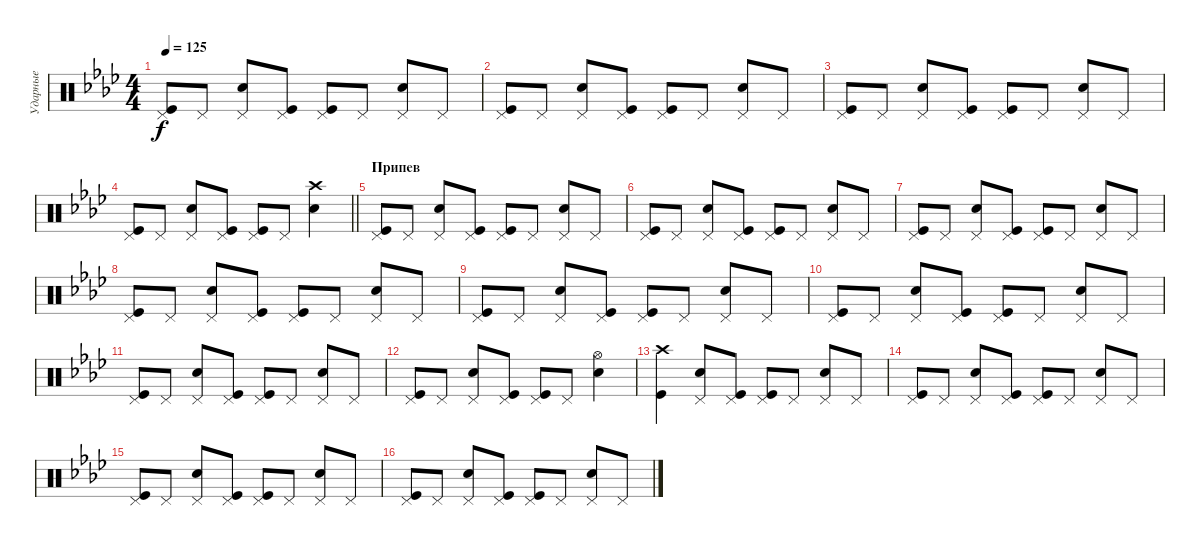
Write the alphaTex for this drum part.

\track ("Ударные" "Ударные") {solo instrument percussion}
\staff {score}
\articulation defaults
\ts (4 4)
\tempo 125
\clef neutral
\ks fminor
("Pedal Hi-Hat (hit)" "Kick (hit)").8{dy f} "Pedal Hi-Hat (hit)".8 ("Pedal Hi-Hat (hit)" "Electric Snare (hit)").8 ("Pedal Hi-Hat (hit)" "Kick (hit)").8 ("Pedal Hi-Hat (hit)" "Kick (hit)").8 "Pedal Hi-Hat (hit)".8 ("Pedal Hi-Hat (hit)" "Electric Snare (hit)").8 "Pedal Hi-Hat (hit)".8 |
("Pedal Hi-Hat (hit)" "Kick (hit)").8 "Pedal Hi-Hat (hit)".8 ("Pedal Hi-Hat (hit)" "Electric Snare (hit)").8 ("Pedal Hi-Hat (hit)" "Kick (hit)").8 ("Pedal Hi-Hat (hit)" "Kick (hit)").8 "Pedal Hi-Hat (hit)".8 ("Pedal Hi-Hat (hit)" "Electric Snare (hit)").8 "Pedal Hi-Hat (hit)".8 |
("Pedal Hi-Hat (hit)" "Kick (hit)").8 "Pedal Hi-Hat (hit)".8 ("Pedal Hi-Hat (hit)" "Electric Snare (hit)").8 ("Pedal Hi-Hat (hit)" "Kick (hit)").8 ("Pedal Hi-Hat (hit)" "Kick (hit)").8 "Pedal Hi-Hat (hit)".8 ("Pedal Hi-Hat (hit)" "Electric Snare (hit)").8 "Pedal Hi-Hat (hit)".8 |
\barLineRight lightlight
("Pedal Hi-Hat (hit)" "Kick (hit)").8 "Pedal Hi-Hat (hit)".8 ("Pedal Hi-Hat (hit)" "Electric Snare (hit)").8 ("Pedal Hi-Hat (hit)" "Kick (hit)").8 ("Pedal Hi-Hat (hit)" "Kick (hit)").8 "Pedal Hi-Hat (hit)".8 ("Crash high (hit)" "Electric Snare (hit)").4 |
\section ("" "Припев")
("Pedal Hi-Hat (hit)" "Kick (hit)").8 "Pedal Hi-Hat (hit)".8 ("Pedal Hi-Hat (hit)" "Electric Snare (hit)").8 ("Pedal Hi-Hat (hit)" "Kick (hit)").8 ("Pedal Hi-Hat (hit)" "Kick (hit)").8 "Pedal Hi-Hat (hit)".8 ("Pedal Hi-Hat (hit)" "Electric Snare (hit)").8 "Pedal Hi-Hat (hit)".8 |
("Pedal Hi-Hat (hit)" "Kick (hit)").8 "Pedal Hi-Hat (hit)".8 ("Pedal Hi-Hat (hit)" "Electric Snare (hit)").8 ("Pedal Hi-Hat (hit)" "Kick (hit)").8 ("Pedal Hi-Hat (hit)" "Kick (hit)").8 "Pedal Hi-Hat (hit)".8 ("Pedal Hi-Hat (hit)" "Electric Snare (hit)").8 "Pedal Hi-Hat (hit)".8 |
("Pedal Hi-Hat (hit)" "Kick (hit)").8 "Pedal Hi-Hat (hit)".8 ("Pedal Hi-Hat (hit)" "Electric Snare (hit)").8 ("Pedal Hi-Hat (hit)" "Kick (hit)").8 ("Pedal Hi-Hat (hit)" "Kick (hit)").8 "Pedal Hi-Hat (hit)".8 ("Pedal Hi-Hat (hit)" "Electric Snare (hit)").8 "Pedal Hi-Hat (hit)".8 |
("Pedal Hi-Hat (hit)" "Kick (hit)").8 "Pedal Hi-Hat (hit)".8 ("Pedal Hi-Hat (hit)" "Electric Snare (hit)").8 ("Pedal Hi-Hat (hit)" "Kick (hit)").8 ("Pedal Hi-Hat (hit)" "Kick (hit)").8 "Pedal Hi-Hat (hit)".8 ("Pedal Hi-Hat (hit)" "Electric Snare (hit)").8 "Pedal Hi-Hat (hit)".8 |
("Pedal Hi-Hat (hit)" "Kick (hit)").8 "Pedal Hi-Hat (hit)".8 ("Pedal Hi-Hat (hit)" "Electric Snare (hit)").8 ("Pedal Hi-Hat (hit)" "Kick (hit)").8 ("Pedal Hi-Hat (hit)" "Kick (hit)").8 "Pedal Hi-Hat (hit)".8 ("Pedal Hi-Hat (hit)" "Electric Snare (hit)").8 "Pedal Hi-Hat (hit)".8 |
("Pedal Hi-Hat (hit)" "Kick (hit)").8 "Pedal Hi-Hat (hit)".8 ("Pedal Hi-Hat (hit)" "Electric Snare (hit)").8 ("Pedal Hi-Hat (hit)" "Kick (hit)").8 ("Pedal Hi-Hat (hit)" "Kick (hit)").8 "Pedal Hi-Hat (hit)".8 ("Pedal Hi-Hat (hit)" "Electric Snare (hit)").8 "Pedal Hi-Hat (hit)".8 |
("Pedal Hi-Hat (hit)" "Kick (hit)").8 "Pedal Hi-Hat (hit)".8 ("Pedal Hi-Hat (hit)" "Electric Snare (hit)").8 ("Pedal Hi-Hat (hit)" "Kick (hit)").8 ("Pedal Hi-Hat (hit)" "Kick (hit)").8 "Pedal Hi-Hat (hit)".8 ("Pedal Hi-Hat (hit)" "Electric Snare (hit)").8 "Pedal Hi-Hat (hit)".8 |
("Pedal Hi-Hat (hit)" "Kick (hit)").8 "Pedal Hi-Hat (hit)".8 ("Pedal Hi-Hat (hit)" "Electric Snare (hit)").8 ("Pedal Hi-Hat (hit)" "Kick (hit)").8 ("Pedal Hi-Hat (hit)" "Kick (hit)").8 "Pedal Hi-Hat (hit)".8 ("Hi-Hat (open)" "Electric Snare (hit)").4 |
("Crash high (hit)" "Kick (hit)").4 ("Pedal Hi-Hat (hit)" "Electric Snare (hit)").8 ("Pedal Hi-Hat (hit)" "Kick (hit)").8 ("Pedal Hi-Hat (hit)" "Kick (hit)").8 "Pedal Hi-Hat (hit)".8 ("Pedal Hi-Hat (hit)" "Electric Snare (hit)").8 "Pedal Hi-Hat (hit)".8 |
("Pedal Hi-Hat (hit)" "Kick (hit)").8 "Pedal Hi-Hat (hit)".8 ("Pedal Hi-Hat (hit)" "Electric Snare (hit)").8 ("Pedal Hi-Hat (hit)" "Kick (hit)").8 ("Pedal Hi-Hat (hit)" "Kick (hit)").8 "Pedal Hi-Hat (hit)".8 ("Pedal Hi-Hat (hit)" "Electric Snare (hit)").8 "Pedal Hi-Hat (hit)".8 |
("Pedal Hi-Hat (hit)" "Kick (hit)").8 "Pedal Hi-Hat (hit)".8 ("Pedal Hi-Hat (hit)" "Electric Snare (hit)").8 ("Pedal Hi-Hat (hit)" "Kick (hit)").8 ("Pedal Hi-Hat (hit)" "Kick (hit)").8 "Pedal Hi-Hat (hit)".8 ("Pedal Hi-Hat (hit)" "Electric Snare (hit)").8 "Pedal Hi-Hat (hit)".8 |
("Pedal Hi-Hat (hit)" "Kick (hit)").8 "Pedal Hi-Hat (hit)".8 ("Pedal Hi-Hat (hit)" "Electric Snare (hit)").8 ("Pedal Hi-Hat (hit)" "Kick (hit)").8 ("Pedal Hi-Hat (hit)" "Kick (hit)").8 "Pedal Hi-Hat (hit)".8 ("Pedal Hi-Hat (hit)" "Electric Snare (hit)").8 "Pedal Hi-Hat (hit)".8
